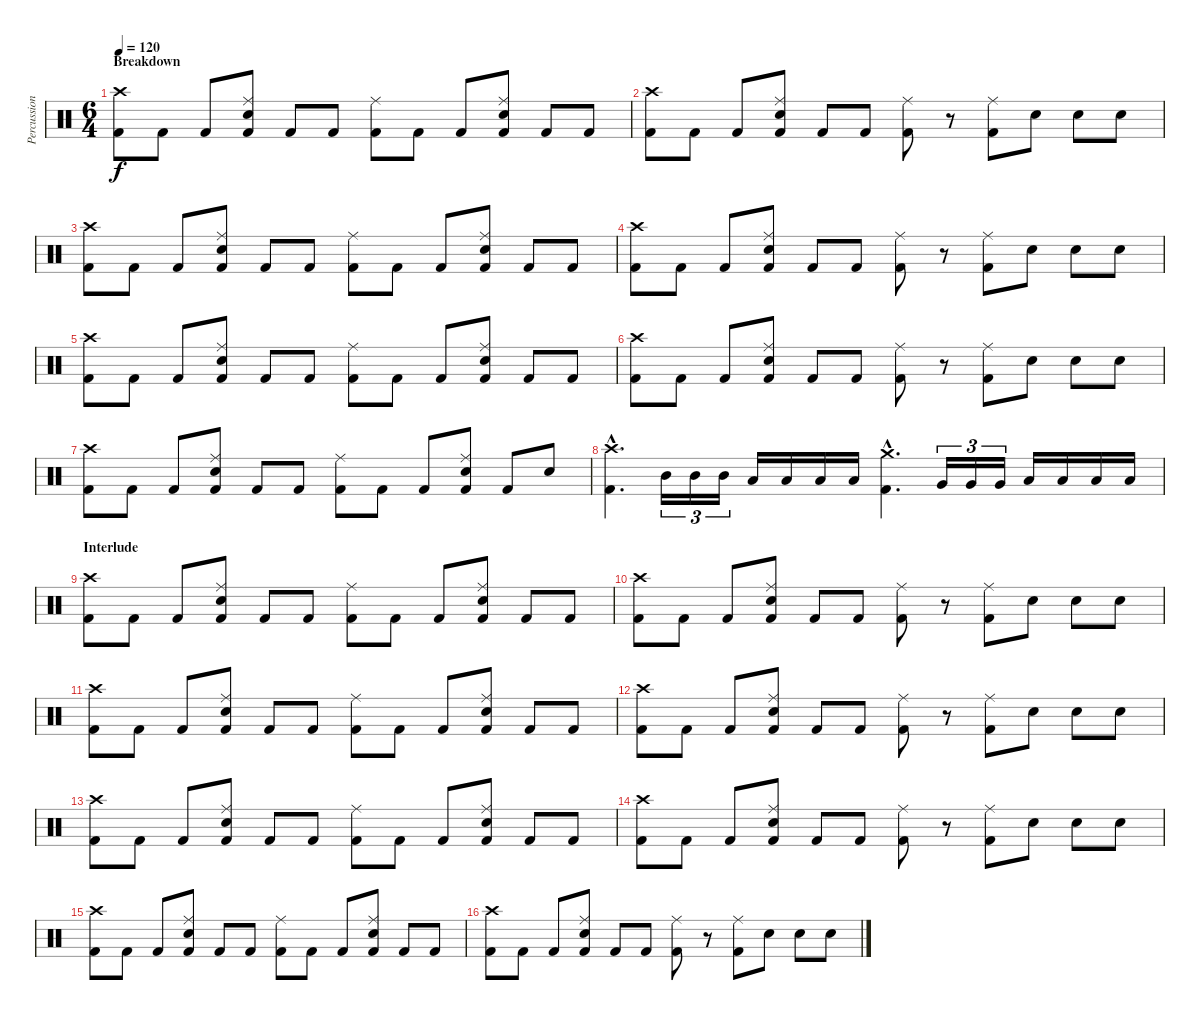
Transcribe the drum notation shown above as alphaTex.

\track ("Percussioni" "Percussion") {instrument percussion}
\staff {score}
\articulation defaults
\ts (6 4)
\section ("" "Breakdown")
\tempo 120
\clef neutral
\ks c
("Crash high (hit)" "Kick (hit) 2").8{dy f} "Kick (hit) 2".8 "Kick (hit) 2".8 ("Ride (middle)" "Electric Snare (hit)" "Kick (hit) 2").8 "Kick (hit) 2".8 "Kick (hit) 2".8 ("Ride (middle)" "Kick (hit) 2").8 "Kick (hit) 2".8 "Kick (hit) 2".8 ("Ride (middle)" "Electric Snare (hit)" "Kick (hit) 2").8 "Kick (hit) 2".8 "Kick (hit) 2".8 |
("Crash high (hit)" "Kick (hit) 2").8 "Kick (hit) 2".8 "Kick (hit) 2".8 ("Ride (middle)" "Electric Snare (hit)" "Kick (hit) 2").8 "Kick (hit) 2".8 "Kick (hit) 2".8 ("Ride (middle)" "Kick (hit) 2").8 r.8 ("Ride (middle)" "Kick (hit) 2").8 "Electric Snare (hit)".8 "Electric Snare (hit)".8 "Electric Snare (hit)".8 |
("Crash high (hit)" "Kick (hit) 2").8 "Kick (hit) 2".8 "Kick (hit) 2".8 ("Ride (middle)" "Electric Snare (hit)" "Kick (hit) 2").8 "Kick (hit) 2".8 "Kick (hit) 2".8 ("Ride (middle)" "Kick (hit) 2").8 "Kick (hit) 2".8 "Kick (hit) 2".8 ("Ride (middle)" "Electric Snare (hit)" "Kick (hit) 2").8 "Kick (hit) 2".8 "Kick (hit) 2".8 |
("Crash high (hit)" "Kick (hit) 2").8 "Kick (hit) 2".8 "Kick (hit) 2".8 ("Ride (middle)" "Electric Snare (hit)" "Kick (hit) 2").8 "Kick (hit) 2".8 "Kick (hit) 2".8 ("Ride (middle)" "Kick (hit) 2").8 r.8 ("Ride (middle)" "Kick (hit) 2").8 "Electric Snare (hit)".8 "Electric Snare (hit)".8 "Electric Snare (hit)".8 |
("Crash high (hit)" "Kick (hit) 2").8 "Kick (hit) 2".8 "Kick (hit) 2".8 ("Ride (middle)" "Electric Snare (hit)" "Kick (hit) 2").8 "Kick (hit) 2".8 "Kick (hit) 2".8 ("Ride (middle)" "Kick (hit) 2").8 "Kick (hit) 2".8 "Kick (hit) 2".8 ("Ride (middle)" "Electric Snare (hit)" "Kick (hit) 2").8 "Kick (hit) 2".8 "Kick (hit) 2".8 |
("Crash high (hit)" "Kick (hit) 2").8 "Kick (hit) 2".8 "Kick (hit) 2".8 ("Ride (middle)" "Electric Snare (hit)" "Kick (hit) 2").8 "Kick (hit) 2".8 "Kick (hit) 2".8 ("Ride (middle)" "Kick (hit) 2").8 r.8 ("Ride (middle)" "Kick (hit) 2").8 "Electric Snare (hit)".8 "Electric Snare (hit)".8 "Electric Snare (hit)".8 |
("Crash high (hit)" "Kick (hit) 2").8 "Kick (hit) 2".8 "Kick (hit) 2".8 ("Ride (middle)" "Electric Snare (hit)" "Kick (hit) 2").8 "Kick (hit) 2".8 "Kick (hit) 2".8 ("Ride (middle)" "Kick (hit) 2").8 "Kick (hit) 2".8 "Kick (hit) 2".8 ("Ride (middle)" "Electric Snare (hit)" "Kick (hit) 2").8 "Kick (hit) 2".8 "Electric Snare (hit)".8 |
("Crash high (hit)"{hac} "Kick (hit) 2"{hac}).4{d} "Mid Tom (hit)".16{tu (3 2)} "Mid Tom (hit)".16{tu (3 2)} "Mid Tom (hit)".16{tu (3 2)} "Low Tom (hit)".16 "Low Tom (hit)".16 "Low Tom (hit)".16 "Low Tom (hit)".16 ("Crash medium (hit)"{hac} "Kick (hit) 2"{hac}).4{d} "Very Low Tom (hit)".16{tu (3 2)} "Very Low Tom (hit)".16{tu (3 2)} "Very Low Tom (hit)".16{tu (3 2)} "Low Floor Tom (hit)".16 "Low Floor Tom (hit)".16 "Low Floor Tom (hit)".16 "Low Floor Tom (hit)".16 |
\section ("" "Interlude")
("Crash high (hit)" "Kick (hit) 2").8 "Kick (hit) 2".8 "Kick (hit) 2".8 ("Ride (middle)" "Electric Snare (hit)" "Kick (hit) 2").8 "Kick (hit) 2".8 "Kick (hit) 2".8 ("Ride (middle)" "Kick (hit) 2").8 "Kick (hit) 2".8 "Kick (hit) 2".8 ("Ride (middle)" "Electric Snare (hit)" "Kick (hit) 2").8 "Kick (hit) 2".8 "Kick (hit) 2".8 |
("Crash high (hit)" "Kick (hit) 2").8 "Kick (hit) 2".8 "Kick (hit) 2".8 ("Ride (middle)" "Electric Snare (hit)" "Kick (hit) 2").8 "Kick (hit) 2".8 "Kick (hit) 2".8 ("Ride (middle)" "Kick (hit) 2").8 r.8 ("Ride (middle)" "Kick (hit) 2").8 "Electric Snare (hit)".8 "Electric Snare (hit)".8 "Electric Snare (hit)".8 |
("Crash high (hit)" "Kick (hit) 2").8 "Kick (hit) 2".8 "Kick (hit) 2".8 ("Ride (middle)" "Electric Snare (hit)" "Kick (hit) 2").8 "Kick (hit) 2".8 "Kick (hit) 2".8 ("Ride (middle)" "Kick (hit) 2").8 "Kick (hit) 2".8 "Kick (hit) 2".8 ("Ride (middle)" "Electric Snare (hit)" "Kick (hit) 2").8 "Kick (hit) 2".8 "Kick (hit) 2".8 |
("Crash high (hit)" "Kick (hit) 2").8 "Kick (hit) 2".8 "Kick (hit) 2".8 ("Ride (middle)" "Electric Snare (hit)" "Kick (hit) 2").8 "Kick (hit) 2".8 "Kick (hit) 2".8 ("Ride (middle)" "Kick (hit) 2").8 r.8 ("Ride (middle)" "Kick (hit) 2").8 "Electric Snare (hit)".8 "Electric Snare (hit)".8 "Electric Snare (hit)".8 |
("Crash high (hit)" "Kick (hit) 2").8 "Kick (hit) 2".8 "Kick (hit) 2".8 ("Ride (middle)" "Electric Snare (hit)" "Kick (hit) 2").8 "Kick (hit) 2".8 "Kick (hit) 2".8 ("Ride (middle)" "Kick (hit) 2").8 "Kick (hit) 2".8 "Kick (hit) 2".8 ("Ride (middle)" "Electric Snare (hit)" "Kick (hit) 2").8 "Kick (hit) 2".8 "Kick (hit) 2".8 |
("Crash high (hit)" "Kick (hit) 2").8 "Kick (hit) 2".8 "Kick (hit) 2".8 ("Ride (middle)" "Electric Snare (hit)" "Kick (hit) 2").8 "Kick (hit) 2".8 "Kick (hit) 2".8 ("Ride (middle)" "Kick (hit) 2").8 r.8 ("Ride (middle)" "Kick (hit) 2").8 "Electric Snare (hit)".8 "Electric Snare (hit)".8 "Electric Snare (hit)".8 |
("Crash high (hit)" "Kick (hit) 2").8 "Kick (hit) 2".8 "Kick (hit) 2".8 ("Ride (middle)" "Electric Snare (hit)" "Kick (hit) 2").8 "Kick (hit) 2".8 "Kick (hit) 2".8 ("Ride (middle)" "Kick (hit) 2").8 "Kick (hit) 2".8 "Kick (hit) 2".8 ("Ride (middle)" "Electric Snare (hit)" "Kick (hit) 2").8 "Kick (hit) 2".8 "Kick (hit) 2".8 |
("Crash high (hit)" "Kick (hit) 2").8 "Kick (hit) 2".8 "Kick (hit) 2".8 ("Ride (middle)" "Electric Snare (hit)" "Kick (hit) 2").8 "Kick (hit) 2".8 "Kick (hit) 2".8 ("Ride (middle)" "Kick (hit) 2").8 r.8 ("Ride (middle)" "Kick (hit) 2").8 "Electric Snare (hit)".8 "Electric Snare (hit)".8 "Electric Snare (hit)".8
